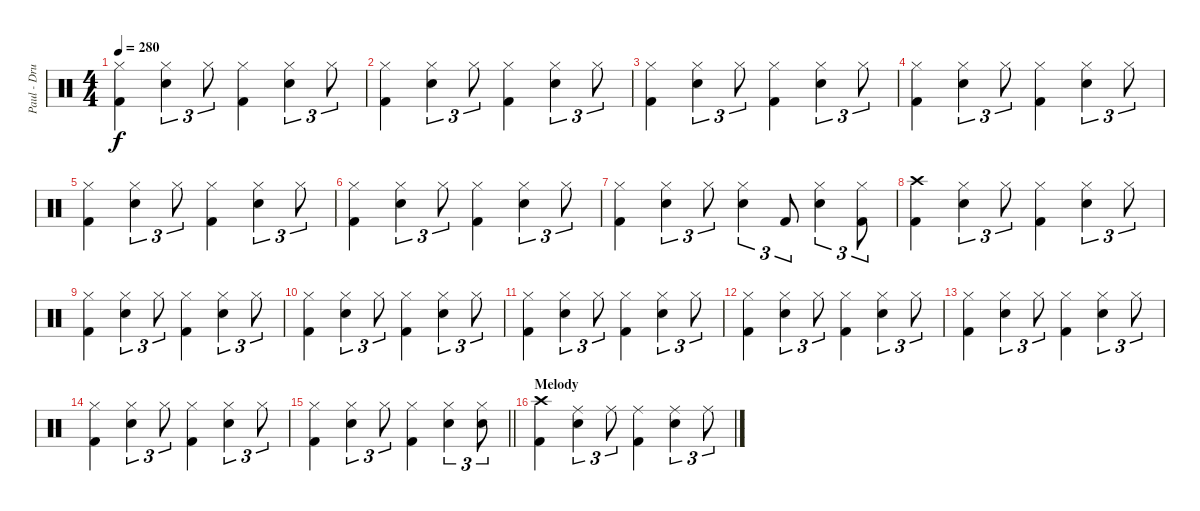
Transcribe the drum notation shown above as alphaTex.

\track ("Paul - Drums" "Paul - Dru") {instrument percussion}
\staff {score}
\articulation defaults
\ts (4 4)
\tempo 280
\clef neutral
\ks c
("Hi-Hat (closed)" "Kick (hit) 2").4{dy f} ("Hi-Hat (closed)" "Electric Snare (hit)").4{tu (3 2)} "Hi-Hat (closed)".8{tu (3 2)} ("Hi-Hat (closed)" "Kick (hit) 2").4 ("Hi-Hat (closed)" "Electric Snare (hit)").4{tu (3 2)} "Hi-Hat (closed)".8{tu (3 2)} |
("Hi-Hat (closed)" "Kick (hit) 2").4 ("Hi-Hat (closed)" "Electric Snare (hit)").4{tu (3 2)} "Hi-Hat (closed)".8{tu (3 2)} ("Hi-Hat (closed)" "Kick (hit) 2").4 ("Hi-Hat (closed)" "Electric Snare (hit)").4{tu (3 2)} "Hi-Hat (closed)".8{tu (3 2)} |
("Hi-Hat (closed)" "Kick (hit) 2").4 ("Hi-Hat (closed)" "Electric Snare (hit)").4{tu (3 2)} "Hi-Hat (closed)".8{tu (3 2)} ("Hi-Hat (closed)" "Kick (hit) 2").4 ("Hi-Hat (closed)" "Electric Snare (hit)").4{tu (3 2)} "Hi-Hat (closed)".8{tu (3 2)} |
("Hi-Hat (closed)" "Kick (hit) 2").4 ("Hi-Hat (closed)" "Electric Snare (hit)").4{tu (3 2)} "Hi-Hat (closed)".8{tu (3 2)} ("Hi-Hat (closed)" "Kick (hit) 2").4 ("Hi-Hat (closed)" "Electric Snare (hit)").4{tu (3 2)} "Hi-Hat (closed)".8{tu (3 2)} |
("Hi-Hat (closed)" "Kick (hit) 2").4 ("Hi-Hat (closed)" "Electric Snare (hit)").4{tu (3 2)} "Hi-Hat (closed)".8{tu (3 2)} ("Hi-Hat (closed)" "Kick (hit) 2").4 ("Hi-Hat (closed)" "Electric Snare (hit)").4{tu (3 2)} "Hi-Hat (closed)".8{tu (3 2)} |
("Hi-Hat (closed)" "Kick (hit) 2").4 ("Hi-Hat (closed)" "Electric Snare (hit)").4{tu (3 2)} "Hi-Hat (closed)".8{tu (3 2)} ("Hi-Hat (closed)" "Kick (hit) 2").4 ("Hi-Hat (closed)" "Electric Snare (hit)").4{tu (3 2)} "Hi-Hat (closed)".8{tu (3 2)} |
("Hi-Hat (closed)" "Kick (hit) 2").4 ("Hi-Hat (closed)" "Electric Snare (hit)").4{tu (3 2)} "Hi-Hat (closed)".8{tu (3 2)} ("Hi-Hat (closed)" "Electric Snare (hit)").4{tu (3 2)} "Kick (hit) 2".8{tu (3 2)} ("Hi-Hat (closed)" "Electric Snare (hit)").4{tu (3 2)} ("Hi-Hat (closed)" "Kick (hit) 2").8{tu (3 2)} |
("Crash high (hit)" "Kick (hit) 2").4 ("Hi-Hat (closed)" "Electric Snare (hit)").4{tu (3 2)} "Hi-Hat (closed)".8{tu (3 2)} ("Hi-Hat (closed)" "Kick (hit) 2").4 ("Hi-Hat (closed)" "Electric Snare (hit)").4{tu (3 2)} "Hi-Hat (closed)".8{tu (3 2)} |
("Hi-Hat (closed)" "Kick (hit) 2").4 ("Hi-Hat (closed)" "Electric Snare (hit)").4{tu (3 2)} "Hi-Hat (closed)".8{tu (3 2)} ("Hi-Hat (closed)" "Kick (hit) 2").4 ("Hi-Hat (closed)" "Electric Snare (hit)").4{tu (3 2)} "Hi-Hat (closed)".8{tu (3 2)} |
("Hi-Hat (closed)" "Kick (hit) 2").4 ("Hi-Hat (closed)" "Electric Snare (hit)").4{tu (3 2)} "Hi-Hat (closed)".8{tu (3 2)} ("Hi-Hat (closed)" "Kick (hit) 2").4 ("Hi-Hat (closed)" "Electric Snare (hit)").4{tu (3 2)} "Hi-Hat (closed)".8{tu (3 2)} |
("Hi-Hat (closed)" "Kick (hit) 2").4 ("Hi-Hat (closed)" "Electric Snare (hit)").4{tu (3 2)} "Hi-Hat (closed)".8{tu (3 2)} ("Hi-Hat (closed)" "Kick (hit) 2").4 ("Hi-Hat (closed)" "Electric Snare (hit)").4{tu (3 2)} "Hi-Hat (closed)".8{tu (3 2)} |
("Hi-Hat (closed)" "Kick (hit) 2").4 ("Hi-Hat (closed)" "Electric Snare (hit)").4{tu (3 2)} "Hi-Hat (closed)".8{tu (3 2)} ("Hi-Hat (closed)" "Kick (hit) 2").4 ("Hi-Hat (closed)" "Electric Snare (hit)").4{tu (3 2)} "Hi-Hat (closed)".8{tu (3 2)} |
("Hi-Hat (closed)" "Kick (hit) 2").4 ("Hi-Hat (closed)" "Electric Snare (hit)").4{tu (3 2)} "Hi-Hat (closed)".8{tu (3 2)} ("Hi-Hat (closed)" "Kick (hit) 2").4 ("Hi-Hat (closed)" "Electric Snare (hit)").4{tu (3 2)} "Hi-Hat (closed)".8{tu (3 2)} |
("Hi-Hat (closed)" "Kick (hit) 2").4 ("Hi-Hat (closed)" "Electric Snare (hit)").4{tu (3 2)} "Hi-Hat (closed)".8{tu (3 2)} ("Hi-Hat (closed)" "Kick (hit) 2").4 ("Hi-Hat (closed)" "Electric Snare (hit)").4{tu (3 2)} "Hi-Hat (closed)".8{tu (3 2)} |
\barLineRight lightlight
("Hi-Hat (closed)" "Kick (hit) 2").4 ("Hi-Hat (closed)" "Electric Snare (hit)").4{tu (3 2)} "Hi-Hat (closed)".8{tu (3 2)} ("Hi-Hat (closed)" "Kick (hit) 2").4 ("Hi-Hat (closed)" "Electric Snare (hit)").4{tu (3 2)} ("Hi-Hat (closed)" "Electric Snare (hit)").8{tu (3 2)} |
\section ("" "Melody")
("Crash high (hit)" "Kick (hit) 2").4 ("Ride (middle)" "Electric Snare (hit)").4{tu (3 2)} "Ride (middle)".8{tu (3 2)} ("Ride (middle)" "Kick (hit) 2").4 ("Ride (middle)" "Electric Snare (hit)").4{tu (3 2)} "Ride (middle)".8{tu (3 2)}
